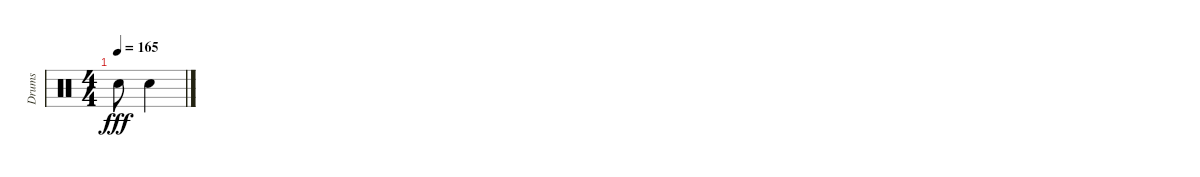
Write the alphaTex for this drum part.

\track ("Drums" "Drums") {instrument percussion}
\staff {score}
\articulation defaults
\ts (4 4)
\tempo 165
\clef neutral
\ks c "Electric Snare (hit)".8{dy fff} "Electric Snare (hit)".4
